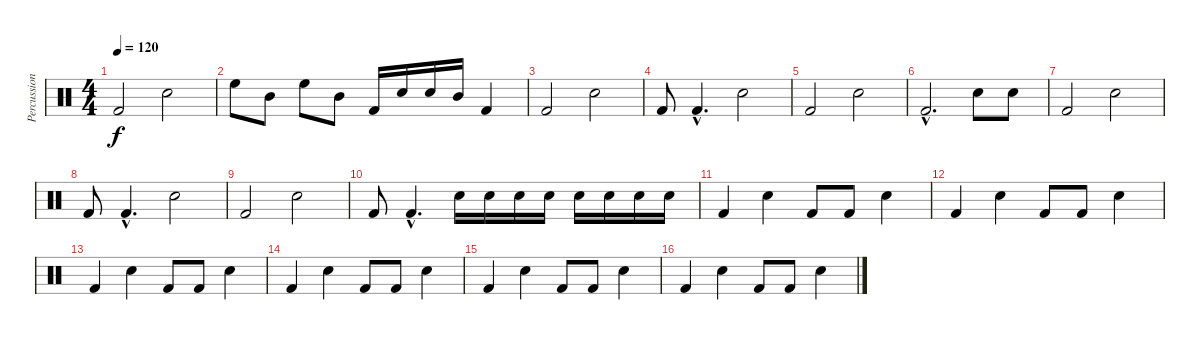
\track ("Percussions" "Percussion") {instrument percussion}
\staff {score}
\articulation defaults
\ts (4 4)
\tempo 120
\clef neutral
\ks c "Kick (hit) 2".2{dy f} "Snare (hit) 2".2
|
"High Floor Tom (hit)".8 "Mid Tom (hit)".8 "High Floor Tom (hit)".8 "Mid Tom (hit)".8 "Kick (hit) 2".16 "Electric Snare (hit)".16 "Electric Snare (hit)".16 "Mid Tom (hit)".16 "Kick (hit) 2".4 |
"Kick (hit) 2".2 "Snare (hit) 2".2 |
"Kick (hit) 2".8 "Kick (hit) 2"{hac}.4{d} "Electric Snare (hit)".2 |
"Kick (hit) 2".2 "Snare (hit) 2".2 |
"Kick (hit) 2"{hac}.2{d} "Electric Snare (hit)".8 "Electric Snare (hit)".8 |
"Kick (hit) 2".2 "Snare (hit) 2".2 |
"Kick (hit) 2".8 "Kick (hit) 2"{hac}.4{d} "Electric Snare (hit)".2 |
"Kick (hit) 2".2 "Snare (hit) 2".2 |
"Kick (hit) 2".8 "Kick (hit) 2"{hac}.4{d} "Electric Snare (hit)".16 "Electric Snare (hit)".16 "Electric Snare (hit)".16 "Electric Snare (hit)".16 "Electric Snare (hit)".16 "Electric Snare (hit)".16 "Electric Snare (hit)".16 "Electric Snare (hit)".16 |
"Kick (hit) 2".4 "Snare (hit) 2".4 "Kick (hit) 2".8 "Kick (hit) 2".8 "Electric Snare (hit)".4 |
"Kick (hit) 2".4 "Snare (hit) 2".4 "Kick (hit) 2".8 "Kick (hit) 2".8 "Electric Snare (hit)".4 |
"Kick (hit) 2".4 "Snare (hit) 2".4 "Kick (hit) 2".8 "Kick (hit) 2".8 "Electric Snare (hit)".4 |
"Kick (hit) 2".4 "Snare (hit) 2".4 "Kick (hit) 2".8 "Kick (hit) 2".8 "Electric Snare (hit)".4 |
"Kick (hit) 2".4 "Snare (hit) 2".4 "Kick (hit) 2".8 "Kick (hit) 2".8 "Electric Snare (hit)".4 |
"Kick (hit) 2".4 "Snare (hit) 2".4 "Kick (hit) 2".8 "Kick (hit) 2".8 "Electric Snare (hit)".4
